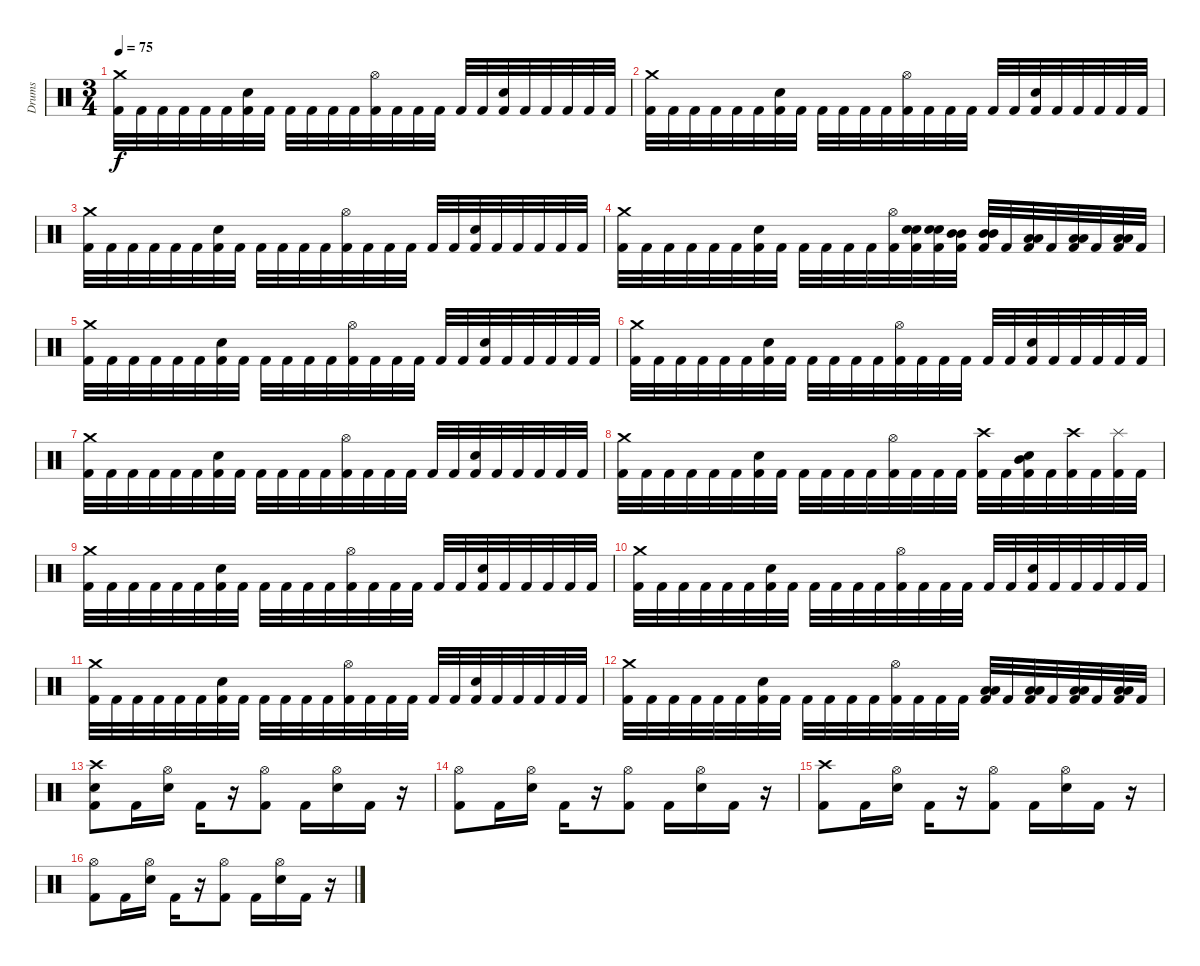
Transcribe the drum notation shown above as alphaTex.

\track ("Drums" "Drums") {instrument percussion}
\staff {score}
\articulation defaults
\ts (3 4)
\tempo 75
\clef neutral
\ks c
("Crash medium (hit)" "Kick (hit) 2").32{dy f} "Kick (hit) 2".32 "Kick (hit) 2".32 "Kick (hit) 2".32 "Kick (hit) 2".32 "Kick (hit) 2".32 ("Snare (hit) 2" "Kick (hit) 2").32 "Kick (hit) 2".32 "Kick (hit) 2".32 "Kick (hit) 2".32 "Kick (hit) 2".32 "Kick (hit) 2".32 ("Hi-Hat (open)" "Kick (hit) 2").32 "Kick (hit) 2".32 "Kick (hit) 2".32 "Kick (hit) 2".32 "Kick (hit) 2".32 "Kick (hit) 2".32 ("Snare (hit) 2" "Kick (hit) 2").32 "Kick (hit) 2".32 "Kick (hit) 2".32 "Kick (hit) 2".32 "Kick (hit) 2".32 "Kick (hit) 2".32 |
("Crash medium (hit)" "Kick (hit) 2").32 "Kick (hit) 2".32 "Kick (hit) 2".32 "Kick (hit) 2".32 "Kick (hit) 2".32 "Kick (hit) 2".32 ("Snare (hit) 2" "Kick (hit) 2").32 "Kick (hit) 2".32 "Kick (hit) 2".32 "Kick (hit) 2".32 "Kick (hit) 2".32 "Kick (hit) 2".32 ("Hi-Hat (open)" "Kick (hit) 2").32 "Kick (hit) 2".32 "Kick (hit) 2".32 "Kick (hit) 2".32 "Kick (hit) 2".32 "Kick (hit) 2".32 ("Snare (hit) 2" "Kick (hit) 2").32 "Kick (hit) 2".32 "Kick (hit) 2".32 "Kick (hit) 2".32 "Kick (hit) 2".32 "Kick (hit) 2".32 |
("Crash medium (hit)" "Kick (hit) 2").32 "Kick (hit) 2".32 "Kick (hit) 2".32 "Kick (hit) 2".32 "Kick (hit) 2".32 "Kick (hit) 2".32 ("Snare (hit) 2" "Kick (hit) 2").32 "Kick (hit) 2".32 "Kick (hit) 2".32 "Kick (hit) 2".32 "Kick (hit) 2".32 "Kick (hit) 2".32 ("Hi-Hat (open)" "Kick (hit) 2").32 "Kick (hit) 2".32 "Kick (hit) 2".32 "Kick (hit) 2".32 "Kick (hit) 2".32 "Kick (hit) 2".32 ("Snare (hit) 2" "Kick (hit) 2").32 "Kick (hit) 2".32 "Kick (hit) 2".32 "Kick (hit) 2".32 "Kick (hit) 2".32 "Kick (hit) 2".32 |
("Crash medium (hit)" "Kick (hit) 2").32 "Kick (hit) 2".32 "Kick (hit) 2".32 "Kick (hit) 2".32 "Kick (hit) 2".32 "Kick (hit) 2".32 ("Snare (hit) 2" "Kick (hit) 2").32 "Kick (hit) 2".32 "Kick (hit) 2".32 "Kick (hit) 2".32 "Kick (hit) 2".32 "Kick (hit) 2".32 ("Hi-Hat (open)" "Kick (hit) 2").32 ("Snare (hit) 2" "Snare (hit) 2" "Kick (hit) 2").32 ("Snare (hit) 2" "Snare (hit) 2" "Kick (hit) 2").32 ("Mid Tom (hit)" "Mid Tom (hit)" "Kick (hit) 2").32 ("Mid Tom (hit)" "Mid Tom (hit)" "Kick (hit) 2").32 "Kick (hit) 2".32 ("Low Tom (hit)" "Low Tom (hit)" "Kick (hit) 2").32 "Kick (hit) 2".32 ("Low Tom (hit)" "Low Tom (hit)" "Kick (hit) 2").32 "Kick (hit) 2".32 ("Low Tom (hit)" "Low Tom (hit)" "Kick (hit) 2").32 "Kick (hit) 2".32 |
("Crash medium (hit)" "Kick (hit) 2").32 "Kick (hit) 2".32 "Kick (hit) 2".32 "Kick (hit) 2".32 "Kick (hit) 2".32 "Kick (hit) 2".32 ("Snare (hit) 2" "Kick (hit) 2").32 "Kick (hit) 2".32 "Kick (hit) 2".32 "Kick (hit) 2".32 "Kick (hit) 2".32 "Kick (hit) 2".32 ("Hi-Hat (open)" "Kick (hit) 2").32 "Kick (hit) 2".32 "Kick (hit) 2".32 "Kick (hit) 2".32 "Kick (hit) 2".32 "Kick (hit) 2".32 ("Snare (hit) 2" "Kick (hit) 2").32 "Kick (hit) 2".32 "Kick (hit) 2".32 "Kick (hit) 2".32 "Kick (hit) 2".32 "Kick (hit) 2".32 |
("Crash medium (hit)" "Kick (hit) 2").32 "Kick (hit) 2".32 "Kick (hit) 2".32 "Kick (hit) 2".32 "Kick (hit) 2".32 "Kick (hit) 2".32 ("Snare (hit) 2" "Kick (hit) 2").32 "Kick (hit) 2".32 "Kick (hit) 2".32 "Kick (hit) 2".32 "Kick (hit) 2".32 "Kick (hit) 2".32 ("Hi-Hat (open)" "Kick (hit) 2").32 "Kick (hit) 2".32 "Kick (hit) 2".32 "Kick (hit) 2".32 "Kick (hit) 2".32 "Kick (hit) 2".32 ("Snare (hit) 2" "Kick (hit) 2").32 "Kick (hit) 2".32 "Kick (hit) 2".32 "Kick (hit) 2".32 "Kick (hit) 2".32 "Kick (hit) 2".32 |
("Crash medium (hit)" "Kick (hit) 2").32 "Kick (hit) 2".32 "Kick (hit) 2".32 "Kick (hit) 2".32 "Kick (hit) 2".32 "Kick (hit) 2".32 ("Snare (hit) 2" "Kick (hit) 2").32 "Kick (hit) 2".32 "Kick (hit) 2".32 "Kick (hit) 2".32 "Kick (hit) 2".32 "Kick (hit) 2".32 ("Hi-Hat (open)" "Kick (hit) 2").32 "Kick (hit) 2".32 "Kick (hit) 2".32 "Kick (hit) 2".32 "Kick (hit) 2".32 "Kick (hit) 2".32 ("Snare (hit) 2" "Kick (hit) 2").32 "Kick (hit) 2".32 "Kick (hit) 2".32 "Kick (hit) 2".32 "Kick (hit) 2".32 "Kick (hit) 2".32 |
("Crash medium (hit)" "Kick (hit) 2").32 "Kick (hit) 2".32 "Kick (hit) 2".32 "Kick (hit) 2".32 "Kick (hit) 2".32 "Kick (hit) 2".32 ("Snare (hit) 2" "Kick (hit) 2").32 "Kick (hit) 2".32 "Kick (hit) 2".32 "Kick (hit) 2".32 "Kick (hit) 2".32 "Kick (hit) 2".32 ("Hi-Hat (open)" "Kick (hit) 2").32 "Kick (hit) 2".32 "Kick (hit) 2".32 "Kick (hit) 2".32 ("Crash high (hit)" "Kick (hit) 2").32 "Kick (hit) 2".32 ("Mid Tom (hit)" "Snare (hit) 2" "Kick (hit) 2").32 "Kick (hit) 2".32 ("Crash high (hit)" "Kick (hit) 2").32 "Kick (hit) 2".32 ("Splash (hit)" "Kick (hit) 2").32 "Kick (hit) 2".32 |
("Crash medium (hit)" "Kick (hit) 2").32 "Kick (hit) 2".32 "Kick (hit) 2".32 "Kick (hit) 2".32 "Kick (hit) 2".32 "Kick (hit) 2".32 ("Snare (hit) 2" "Kick (hit) 2").32 "Kick (hit) 2".32 "Kick (hit) 2".32 "Kick (hit) 2".32 "Kick (hit) 2".32 "Kick (hit) 2".32 ("Hi-Hat (open)" "Kick (hit) 2").32 "Kick (hit) 2".32 "Kick (hit) 2".32 "Kick (hit) 2".32 "Kick (hit) 2".32 "Kick (hit) 2".32 ("Snare (hit) 2" "Kick (hit) 2").32 "Kick (hit) 2".32 "Kick (hit) 2".32 "Kick (hit) 2".32 "Kick (hit) 2".32 "Kick (hit) 2".32 |
("Crash medium (hit)" "Kick (hit) 2").32 "Kick (hit) 2".32 "Kick (hit) 2".32 "Kick (hit) 2".32 "Kick (hit) 2".32 "Kick (hit) 2".32 ("Snare (hit) 2" "Kick (hit) 2").32 "Kick (hit) 2".32 "Kick (hit) 2".32 "Kick (hit) 2".32 "Kick (hit) 2".32 "Kick (hit) 2".32 ("Hi-Hat (open)" "Kick (hit) 2").32 "Kick (hit) 2".32 "Kick (hit) 2".32 "Kick (hit) 2".32 "Kick (hit) 2".32 "Kick (hit) 2".32 ("Snare (hit) 2" "Kick (hit) 2").32 "Kick (hit) 2".32 "Kick (hit) 2".32 "Kick (hit) 2".32 "Kick (hit) 2".32 "Kick (hit) 2".32 |
("Crash medium (hit)" "Kick (hit) 2").32 "Kick (hit) 2".32 "Kick (hit) 2".32 "Kick (hit) 2".32 "Kick (hit) 2".32 "Kick (hit) 2".32 ("Snare (hit) 2" "Kick (hit) 2").32 "Kick (hit) 2".32 "Kick (hit) 2".32 "Kick (hit) 2".32 "Kick (hit) 2".32 "Kick (hit) 2".32 ("Hi-Hat (open)" "Kick (hit) 2").32 "Kick (hit) 2".32 "Kick (hit) 2".32 "Kick (hit) 2".32 "Kick (hit) 2".32 "Kick (hit) 2".32 ("Snare (hit) 2" "Kick (hit) 2").32 "Kick (hit) 2".32 "Kick (hit) 2".32 "Kick (hit) 2".32 "Kick (hit) 2".32 "Kick (hit) 2".32 |
("Crash medium (hit)" "Kick (hit) 2").32 "Kick (hit) 2".32 "Kick (hit) 2".32 "Kick (hit) 2".32 "Kick (hit) 2".32 "Kick (hit) 2".32 ("Snare (hit) 2" "Kick (hit) 2").32 "Kick (hit) 2".32 "Kick (hit) 2".32 "Kick (hit) 2".32 "Kick (hit) 2".32 "Kick (hit) 2".32 ("Hi-Hat (open)" "Kick (hit) 2").32 "Kick (hit) 2".32 "Kick (hit) 2".32 "Kick (hit) 2".32 ("Low Tom (hit)" "Low Tom (hit)" "Kick (hit) 2").32 "Kick (hit) 2".32 ("Low Tom (hit)" "Low Tom (hit)" "Kick (hit) 2").32 "Kick (hit) 2".32 ("Low Tom (hit)" "Low Tom (hit)" "Kick (hit) 2").32 "Kick (hit) 2".32 ("Low Tom (hit)" "Low Tom (hit)" "Kick (hit) 2").32 "Kick (hit) 2".32 |
("Crash high (hit)" "Snare (hit) 2" "Kick (hit) 2").8 "Kick (hit) 2".16 ("Hi-Hat (open)" "Snare (hit) 2").16 "Kick (hit) 2".16 r.16 ("Hi-Hat (open)" "Kick (hit) 2").8 "Kick (hit) 2".16 ("Hi-Hat (open)" "Snare (hit) 2").16 "Kick (hit) 2".16 r.16 |
("Hi-Hat (open)" "Kick (hit) 2").8 "Kick (hit) 2".16 ("Hi-Hat (open)" "Snare (hit) 2").16 "Kick (hit) 2".16 r.16 ("Hi-Hat (open)" "Kick (hit) 2").8 "Kick (hit) 2".16 ("Hi-Hat (open)" "Snare (hit) 2").16 "Kick (hit) 2".16 r.16 |
("Crash high (hit)" "Kick (hit) 2").8 "Kick (hit) 2".16 ("Hi-Hat (open)" "Snare (hit) 2").16 "Kick (hit) 2".16 r.16 ("Hi-Hat (open)" "Kick (hit) 2").8 "Kick (hit) 2".16 ("Hi-Hat (open)" "Snare (hit) 2").16 "Kick (hit) 2".16 r.16 |
("Hi-Hat (open)" "Kick (hit) 2").8 "Kick (hit) 2".16 ("Hi-Hat (open)" "Snare (hit) 2").16 "Kick (hit) 2".16 r.16 ("Hi-Hat (open)" "Kick (hit) 2").8 "Kick (hit) 2".16 ("Hi-Hat (open)" "Snare (hit) 2").16 "Kick (hit) 2".16 r.16
